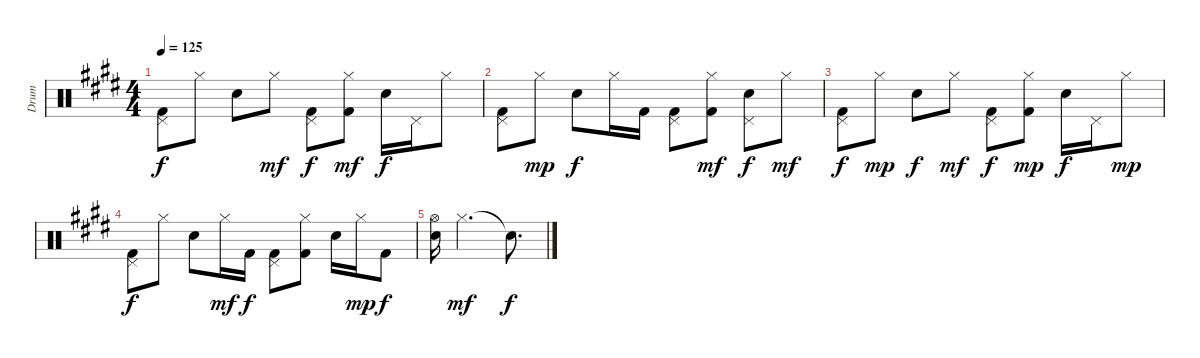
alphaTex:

\track ("Drum" "Drum") {instrument percussion}
\staff {score}
\articulation defaults
\ts (4 4)
\tempo 125
\clef neutral
\ks e
("Kick (hit) 2" "Pedal Hi-Hat (hit)").8{dy f} "Hi-Hat (closed)".8 "Snare (hit) 2".8 "Hi-Hat (closed)".8{dy mf} ("Kick (hit) 2" "Pedal Hi-Hat (hit)").8{dy f} ("Kick (hit) 2" "Hi-Hat (closed)").8{dy mf} "Snare (hit) 2".16{dy f} "Pedal Hi-Hat (hit)".16 "Hi-Hat (closed)".8 |
("Kick (hit) 2" "Pedal Hi-Hat (hit)").8 "Hi-Hat (closed)".8{dy mp} "Snare (hit) 2".8{dy f} "Hi-Hat (closed)".16 "Kick (hit) 2".16 ("Kick (hit) 2" "Pedal Hi-Hat (hit)").8 ("Kick (hit) 2" "Hi-Hat (closed)").8{dy mf} ("Snare (hit) 2" "Pedal Hi-Hat (hit)").8{dy f} "Hi-Hat (closed)".8{dy mf} |
("Kick (hit) 2" "Pedal Hi-Hat (hit)").8{dy f} "Hi-Hat (closed)".8{dy mp} "Snare (hit) 2".8{dy f} "Hi-Hat (closed)".8{dy mf} ("Kick (hit) 2" "Pedal Hi-Hat (hit)").8{dy f} ("Kick (hit) 2" "Hi-Hat (closed)").8{dy mp} "Snare (hit) 2".16{dy f} "Pedal Hi-Hat (hit)".16 "Hi-Hat (closed)".8{dy mp} |
("Kick (hit) 2" "Pedal Hi-Hat (hit)").8{dy f} "Hi-Hat (closed)".8 "Snare (hit) 2".8 "Hi-Hat (closed)".16{dy mf} "Kick (hit) 2".16{dy f} ("Kick (hit) 2" "Pedal Hi-Hat (hit)").8 ("Kick (hit) 2" "Hi-Hat (closed)").8 "Snare (hit) 2".16 "Hi-Hat (closed)".16{dy mp} "Kick (hit) 2".8{dy f} |
("Snare (hit) 2" "Hi-Hat (open)").16 "Hi-Hat (closed)".2{d dy mf} "Snare (hit)"{t}.8{d dy f}
